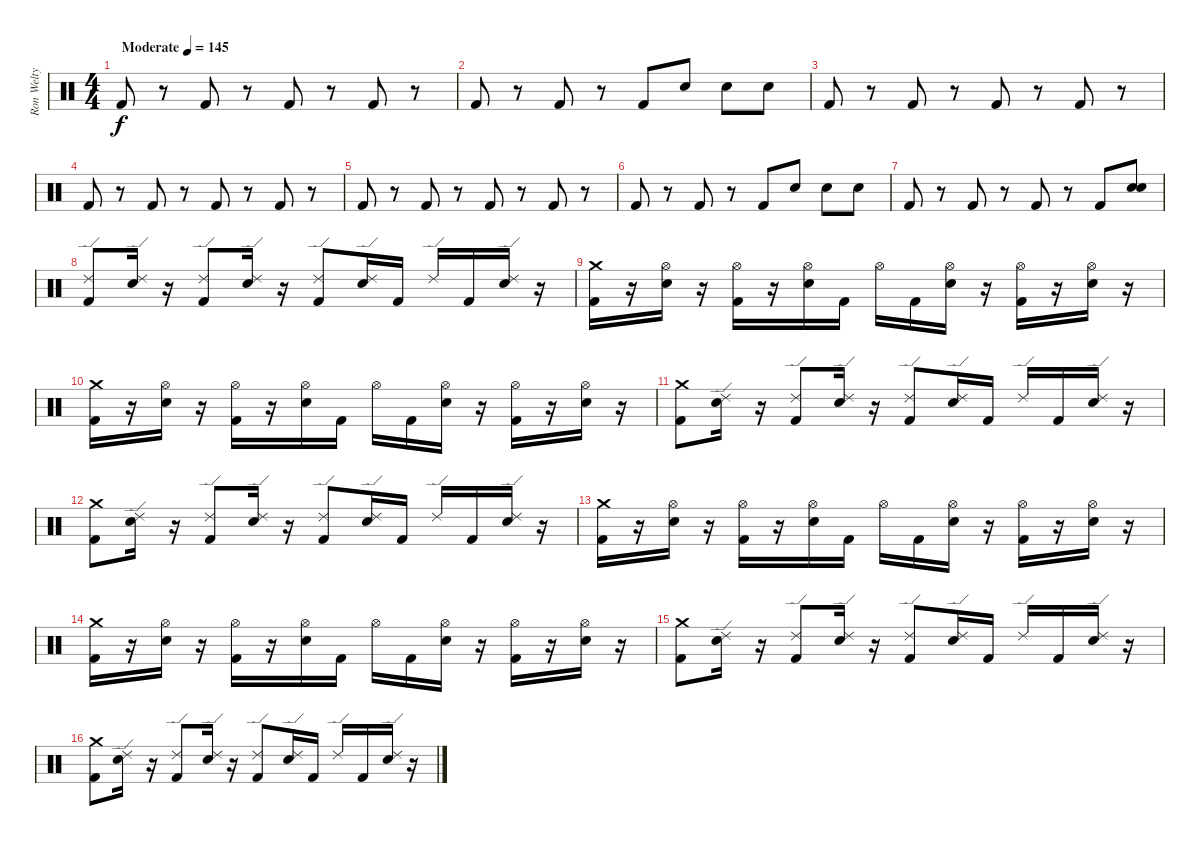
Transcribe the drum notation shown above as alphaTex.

\track ("Ron Welty" "Ron Welty") {instrument percussion}
\staff {score}
\articulation defaults
\ts (4 4)
\tempo (145 "Moderate")
\clef neutral
\ks c "Kick (hit) 2".8{dy f}
r.8 "Kick (hit) 2".8 r.8 "Kick (hit) 2".8 r.8 "Kick (hit) 2".8 r.8 |
"Kick (hit) 2".8 r.8 "Kick (hit) 2".8 r.8 "Kick (hit) 2".8 "Snare (hit) 2".8 "Snare (hit) 2".8 "Snare (hit) 2".8 |
"Kick (hit) 2".8 r.8 "Kick (hit) 2".8 r.8 "Kick (hit) 2".8 r.8 "Kick (hit) 2".8 r.8 |
"Kick (hit) 2".8 r.8 "Kick (hit) 2".8 r.8 "Kick (hit) 2".8 r.8 "Kick (hit) 2".8 r.8 |
"Kick (hit) 2".8 r.8 "Kick (hit) 2".8 r.8 "Kick (hit) 2".8 r.8 "Kick (hit) 2".8 r.8 |
"Kick (hit) 2".8 r.8 "Kick (hit) 2".8 r.8 "Kick (hit) 2".8 "Snare (hit) 2".8 "Snare (hit) 2".8 "Snare (hit) 2".8 |
"Kick (hit) 2".8 r.8 "Kick (hit) 2".8 r.8 "Kick (hit) 2".8 r.8 "Kick (hit) 2".8 ("Snare (hit) 2" "Snare (hit) 2").8 |
("Kick (hit) 2" "Ride (edge) 2").8 ("Snare (hit) 2" "Ride (edge) 2").16 r.16 ("Kick (hit) 2" "Ride (edge) 2").8 ("Snare (hit) 2" "Ride (edge) 2").16 r.16 ("Kick (hit) 2" "Ride (edge) 2").8 ("Snare (hit) 2" "Ride (edge) 2").16 "Kick (hit) 2".16 "Ride (edge) 2".16 "Kick (hit) 2".16 ("Snare (hit) 2" "Ride (edge) 2").16 r.16 |
("Kick (hit) 2" "Crash medium (hit)").16 r.16 ("Hi-Hat (open)" "Snare (hit) 2").16 r.16 ("Hi-Hat (open)" "Kick (hit) 2").16 r.16 ("Hi-Hat (open)" "Snare (hit) 2").16 "Kick (hit) 2".16 "Hi-Hat (open)".16 "Kick (hit) 2".16 ("Hi-Hat (open)" "Snare (hit) 2").16 r.16 ("Hi-Hat (open)" "Kick (hit) 2").16 r.16 ("Hi-Hat (open)" "Snare (hit) 2").16 r.16 |
("Kick (hit) 2" "Crash medium (hit)").16 r.16 ("Hi-Hat (open)" "Snare (hit) 2").16 r.16 ("Hi-Hat (open)" "Kick (hit) 2").16 r.16 ("Hi-Hat (open)" "Snare (hit) 2").16 "Kick (hit) 2".16 "Hi-Hat (open)".16 "Kick (hit) 2".16 ("Hi-Hat (open)" "Snare (hit) 2").16 r.16 ("Hi-Hat (open)" "Kick (hit) 2").16 r.16 ("Hi-Hat (open)" "Snare (hit) 2").16 r.16 |
("Kick (hit) 2" "Crash medium (hit)").8 ("Snare (hit) 2" "Ride (edge) 2").16 r.16 ("Kick (hit) 2" "Ride (edge) 2").8 ("Snare (hit) 2" "Ride (edge) 2").16 r.16 ("Kick (hit) 2" "Ride (edge) 2").8 ("Snare (hit) 2" "Ride (edge) 2").16 "Kick (hit) 2".16 "Ride (edge) 2".16 "Kick (hit) 2".16 ("Snare (hit) 2" "Ride (edge) 2").16 r.16 |
("Kick (hit) 2" "Crash medium (hit)").8 ("Snare (hit) 2" "Ride (edge) 2").16 r.16 ("Kick (hit) 2" "Ride (edge) 2").8 ("Snare (hit) 2" "Ride (edge) 2").16 r.16 ("Kick (hit) 2" "Ride (edge) 2").8 ("Snare (hit) 2" "Ride (edge) 2").16 "Kick (hit) 2".16 "Ride (edge) 2".16 "Kick (hit) 2".16 ("Snare (hit) 2" "Ride (edge) 2").16 r.16 |
("Kick (hit) 2" "Crash medium (hit)").16 r.16 ("Hi-Hat (open)" "Snare (hit) 2").16 r.16 ("Hi-Hat (open)" "Kick (hit) 2").16 r.16 ("Hi-Hat (open)" "Snare (hit) 2").16 "Kick (hit) 2".16 "Hi-Hat (open)".16 "Kick (hit) 2".16 ("Hi-Hat (open)" "Snare (hit) 2").16 r.16 ("Hi-Hat (open)" "Kick (hit) 2").16 r.16 ("Hi-Hat (open)" "Snare (hit) 2").16 r.16 |
("Kick (hit) 2" "Crash medium (hit)").16 r.16 ("Hi-Hat (open)" "Snare (hit) 2").16 r.16 ("Hi-Hat (open)" "Kick (hit) 2").16 r.16 ("Hi-Hat (open)" "Snare (hit) 2").16 "Kick (hit) 2".16 "Hi-Hat (open)".16 "Kick (hit) 2".16 ("Hi-Hat (open)" "Snare (hit) 2").16 r.16 ("Hi-Hat (open)" "Kick (hit) 2").16 r.16 ("Hi-Hat (open)" "Snare (hit) 2").16 r.16 |
("Kick (hit) 2" "Crash medium (hit)").8 ("Snare (hit) 2" "Ride (edge) 2").16 r.16 ("Kick (hit) 2" "Ride (edge) 2").8 ("Snare (hit) 2" "Ride (edge) 2").16 r.16 ("Kick (hit) 2" "Ride (edge) 2").8 ("Snare (hit) 2" "Ride (edge) 2").16 "Kick (hit) 2".16 "Ride (edge) 2".16 "Kick (hit) 2".16 ("Snare (hit) 2" "Ride (edge) 2").16 r.16 |
("Kick (hit) 2" "Crash medium (hit)").8 ("Snare (hit) 2" "Ride (edge) 2").16 r.16 ("Kick (hit) 2" "Ride (edge) 2").8 ("Snare (hit) 2" "Ride (edge) 2").16 r.16 ("Kick (hit) 2" "Ride (edge) 2").8 ("Snare (hit) 2" "Ride (edge) 2").16 "Kick (hit) 2".16 "Ride (edge) 2".16 "Kick (hit) 2".16 ("Snare (hit) 2" "Ride (edge) 2").16 r.16
